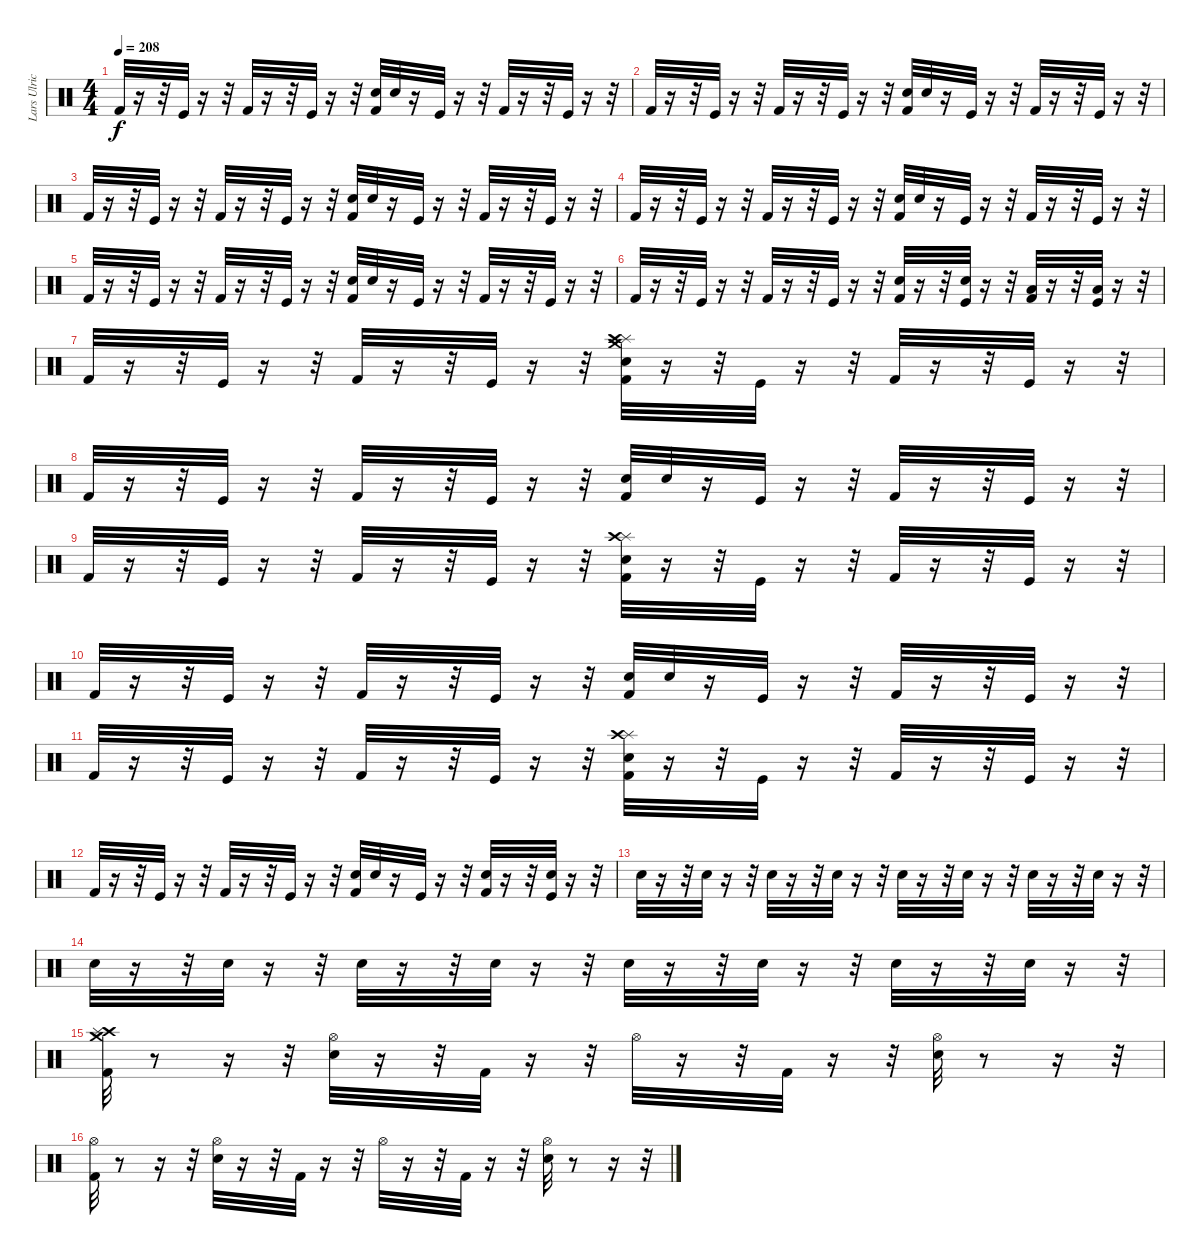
\track ("Lars Ulrich (Drums)" "Lars Ulric") {instrument percussion}
\staff {score}
\articulation defaults
\ts (4 4)
\tempo 208
\clef neutral
\ks c "Kick (hit) 2".32{dy f}
r.16 r.32 "Kick (hit)".32 r.16 r.32 "Kick (hit) 2".32 r.16 r.32 "Kick (hit)".32 r.16 r.32 ("Snare (hit) 2" "Kick (hit) 2").32 "Snare (hit) 2".32 r.16 "Kick (hit)".32 r.16 r.32 "Kick (hit) 2".32 r.16 r.32 "Kick (hit)".32 r.16 r.32 |
"Kick (hit) 2".32 r.16 r.32 "Kick (hit)".32 r.16 r.32 "Kick (hit) 2".32 r.16 r.32 "Kick (hit)".32 r.16 r.32 ("Snare (hit) 2" "Kick (hit) 2").32 "Snare (hit) 2".32 r.16 "Kick (hit)".32 r.16 r.32 "Kick (hit) 2".32 r.16 r.32 "Kick (hit)".32 r.16 r.32 |
"Kick (hit) 2".32 r.16 r.32 "Kick (hit)".32 r.16 r.32 "Kick (hit) 2".32 r.16 r.32 "Kick (hit)".32 r.16 r.32 ("Snare (hit) 2" "Kick (hit) 2").32 "Snare (hit) 2".32 r.16 "Kick (hit)".32 r.16 r.32 "Kick (hit) 2".32 r.16 r.32 "Kick (hit)".32 r.16 r.32 |
"Kick (hit) 2".32 r.16 r.32 "Kick (hit)".32 r.16 r.32 "Kick (hit) 2".32 r.16 r.32 "Kick (hit)".32 r.16 r.32 ("Snare (hit) 2" "Kick (hit) 2").32 "Snare (hit) 2".32 r.16 "Kick (hit)".32 r.16 r.32 "Kick (hit) 2".32 r.16 r.32 "Kick (hit)".32 r.16 r.32 |
"Kick (hit) 2".32 r.16 r.32 "Kick (hit)".32 r.16 r.32 "Kick (hit) 2".32 r.16 r.32 "Kick (hit)".32 r.16 r.32 ("Snare (hit) 2" "Kick (hit) 2").32 "Snare (hit) 2".32 r.16 "Kick (hit)".32 r.16 r.32 "Kick (hit) 2".32 r.16 r.32 "Kick (hit)".32 r.16 r.32 |
"Kick (hit) 2".32 r.16 r.32 "Kick (hit)".32 r.16 r.32 "Kick (hit) 2".32 r.16 r.32 "Kick (hit)".32 r.16 r.32 ("Snare (hit) 2" "Kick (hit) 2").32 r.16 r.32 ("Snare (hit) 2" "Kick (hit)").32 r.16 r.32 ("Low Tom (hit)" "Kick (hit) 2").32 r.16 r.32 ("Low Floor Tom (hit)" "Kick (hit)").32 r.16 r.32 |
"Kick (hit) 2".32 r.16 r.32 "Kick (hit)".32 r.16 r.32 "Kick (hit) 2".32 r.16 r.32 "Kick (hit)".32 r.16 r.32 ("Crash medium (hit)" "Splash (hit)" "Crash high (hit)" "Snare (hit) 2" "Kick (hit) 2").32 r.16 r.32 "Kick (hit)".32 r.16 r.32 "Kick (hit) 2".32 r.16 r.32 "Kick (hit)".32 r.16 r.32 |
"Kick (hit) 2".32 r.16 r.32 "Kick (hit)".32 r.16 r.32 "Kick (hit) 2".32 r.16 r.32 "Kick (hit)".32 r.16 r.32 ("Snare (hit) 2" "Kick (hit) 2").32 "Snare (hit) 2".32 r.16 "Kick (hit)".32 r.16 r.32 "Kick (hit) 2".32 r.16 r.32 "Kick (hit)".32 r.16 r.32 |
"Kick (hit) 2".32 r.16 r.32 "Kick (hit)".32 r.16 r.32 "Kick (hit) 2".32 r.16 r.32 "Kick (hit)".32 r.16 r.32 ("Splash (hit)" "Crash high (hit)" "Snare (hit) 2" "Kick (hit) 2").32 r.16 r.32 "Kick (hit)".32 r.16 r.32 "Kick (hit) 2".32 r.16 r.32 "Kick (hit)".32 r.16 r.32 |
"Kick (hit) 2".32 r.16 r.32 "Kick (hit)".32 r.16 r.32 "Kick (hit) 2".32 r.16 r.32 "Kick (hit)".32 r.16 r.32 ("Snare (hit) 2" "Kick (hit) 2").32 "Snare (hit) 2".32 r.16 "Kick (hit)".32 r.16 r.32 "Kick (hit) 2".32 r.16 r.32 "Kick (hit)".32 r.16 r.32 |
"Kick (hit) 2".32 r.16 r.32 "Kick (hit)".32 r.16 r.32 "Kick (hit) 2".32 r.16 r.32 "Kick (hit)".32 r.16 r.32 ("Splash (hit)" "Crash high (hit)" "Snare (hit) 2" "Kick (hit) 2").32 r.16 r.32 "Kick (hit)".32 r.16 r.32 "Kick (hit) 2".32 r.16 r.32 "Kick (hit)".32 r.16 r.32 |
"Kick (hit) 2".32 r.16 r.32 "Kick (hit)".32 r.16 r.32 "Kick (hit) 2".32 r.16 r.32 "Kick (hit)".32 r.16 r.32 ("Snare (hit) 2" "Kick (hit) 2").32 "Snare (hit) 2".32 r.16 "Kick (hit)".32 r.16 r.32 ("Snare (hit) 2" "Kick (hit) 2").32 r.16 r.32 ("Snare (hit) 2" "Kick (hit)").32 r.16 r.32 |
"Snare (hit) 2".32 r.16 r.32 "Snare (hit) 2".32 r.16 r.32 "Snare (hit) 2".32 r.16 r.32 "Snare (hit) 2".32 r.16 r.32 "Snare (hit) 2".32 r.16 r.32 "Snare (hit) 2".32 r.16 r.32 "Snare (hit) 2".32 r.16 r.32 "Snare (hit) 2".32 r.16 r.32 |
"Snare (hit) 2".32 r.16 r.32 "Snare (hit) 2".32 r.16 r.32 "Snare (hit) 2".32 r.16 r.32 "Snare (hit) 2".32 r.16 r.32 "Snare (hit) 2".32 r.16 r.32 "Snare (hit) 2".32 r.16 r.32 "Snare (hit) 2".32 r.16 r.32 "Snare (hit) 2".32 r.16 r.32 |
("Kick (hit) 2" "Crash high (hit)" "Crash medium (hit)" "Splash (hit)").32 r.8 r.16 r.32 ("Snare (hit) 2" "Hi-Hat (open)").32 r.16 r.32 "Kick (hit) 2".32 r.16 r.32 "Hi-Hat (open)".32 r.16 r.32 "Kick (hit) 2".32 r.16 r.32 ("Snare (hit) 2" "Hi-Hat (open)").32 r.8 r.16 r.32 |
("Kick (hit) 2" "Hi-Hat (open)").32 r.8 r.16 r.32 ("Snare (hit) 2" "Hi-Hat (open)").32 r.16 r.32 "Kick (hit) 2".32 r.16 r.32 "Hi-Hat (open)".32 r.16 r.32 "Kick (hit) 2".32 r.16 r.32 ("Snare (hit) 2" "Hi-Hat (open)").32 r.8 r.16 r.32
